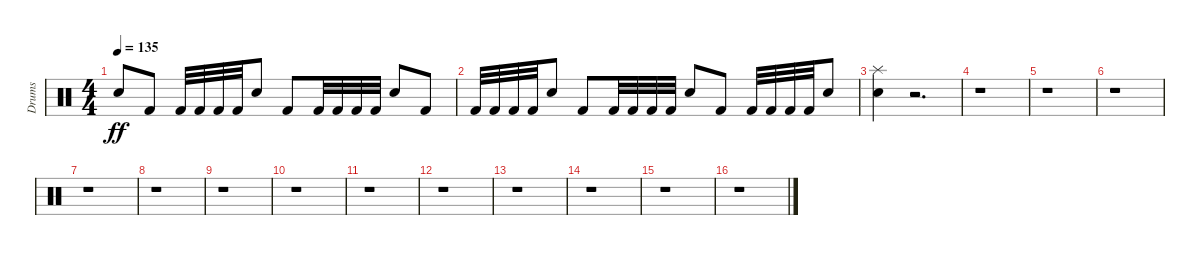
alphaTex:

\track ("Drums" "Drums") {instrument percussion}
\staff {score}
\articulation defaults
\ts (4 4)
\tempo 135
\clef neutral
\ks c "Electric Snare (hit)".8{dy ff} "Kick (hit) 2".8 "Kick (hit) 2".32 "Kick (hit) 2".32 "Kick (hit) 2".32 "Kick (hit) 2".32 "Electric Snare (hit)".8 "Kick (hit) 2".8 "Kick (hit) 2".32 "Kick (hit) 2".32 "Kick (hit) 2".32 "Kick (hit) 2".32 "Electric Snare (hit)".8 "Kick (hit) 2".8
|
"Kick (hit) 2".32 "Kick (hit) 2".32 "Kick (hit) 2".32 "Kick (hit) 2".32 "Electric Snare (hit)".8 "Kick (hit) 2".8 "Kick (hit) 2".32 "Kick (hit) 2".32 "Kick (hit) 2".32 "Kick (hit) 2".32 "Electric Snare (hit)".8 "Kick (hit) 2".8 "Kick (hit) 2".32 "Kick (hit) 2".32 "Kick (hit) 2".32 "Kick (hit) 2".32 "Electric Snare (hit)".8 |
("Electric Snare (hit)" "Splash (hit)").4 r.2{d} |
r.1 |
r.1 |
r.1 |
r.1 |
r.1 |
r.1 |
r.1 |
r.1 |
r.1 |
r.1 |
r.1 |
r.1 |
r.1
